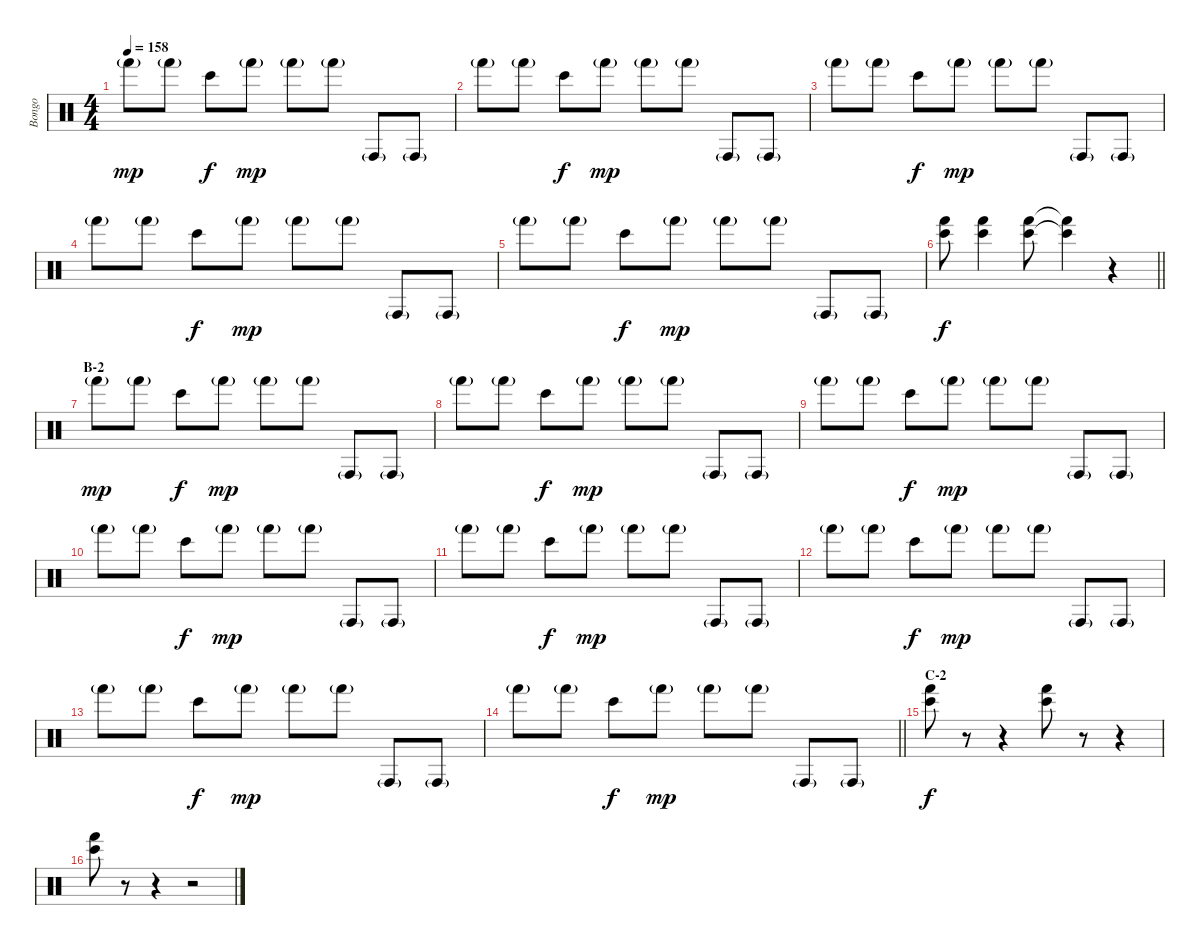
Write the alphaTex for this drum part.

\track ("Bongo" "Bongo") {instrument percussion}
\staff {score}
\articulation defaults
\ts (4 4)
\tempo 158
\clef neutral
\ks c "Hand (hit)"{g}.8{dy mp} "Hand (hit)"{g}.8 "Bongo High (hit)".8{dy f} "Hand (hit)"{g}.8{dy mp} "Hand (hit)"{g}.8 "Hand (hit)"{g}.8 "Conga high (hit)"{g}.8 "Conga high (hit)"{g}.8
|
"Hand (hit)"{g}.8 "Hand (hit)"{g}.8 "Bongo High (hit)".8{dy f} "Hand (hit)"{g}.8{dy mp} "Hand (hit)"{g}.8 "Hand (hit)"{g}.8 "Conga high (hit)"{g}.8 "Conga high (hit)"{g}.8 |
"Hand (hit)"{g}.8 "Hand (hit)"{g}.8 "Bongo High (hit)".8{dy f} "Hand (hit)"{g}.8{dy mp} "Hand (hit)"{g}.8 "Hand (hit)"{g}.8 "Conga high (hit)"{g}.8 "Conga high (hit)"{g}.8 |
"Hand (hit)"{g}.8 "Hand (hit)"{g}.8 "Bongo High (hit)".8{dy f} "Hand (hit)"{g}.8{dy mp} "Hand (hit)"{g}.8 "Hand (hit)"{g}.8 "Conga high (hit)"{g}.8 "Conga high (hit)"{g}.8 |
"Hand (hit)"{g}.8 "Hand (hit)"{g}.8 "Bongo High (hit)".8{dy f} "Hand (hit)"{g}.8{dy mp} "Hand (hit)"{g}.8 "Hand (hit)"{g}.8 "Conga high (hit)"{g}.8 "Conga high (hit)"{g}.8 |
\barLineRight lightlight
("Bongo High (hit)" "Hand (hit)").8{dy f} ("Bongo High (hit)" "Hand (hit)").4 ("Bongo High (hit)" "Hand (hit)").8 ("Bongo High (hit)"{t} "Hand (hit)"{t}).4 r.4 |
\section ("" "B-2")
"Hand (hit)"{g}.8{dy mp} "Hand (hit)"{g}.8 "Bongo High (hit)".8{dy f} "Hand (hit)"{g}.8{dy mp} "Hand (hit)"{g}.8 "Hand (hit)"{g}.8 "Conga high (hit)"{g}.8 "Conga high (hit)"{g}.8 |
"Hand (hit)"{g}.8 "Hand (hit)"{g}.8 "Bongo High (hit)".8{dy f} "Hand (hit)"{g}.8{dy mp} "Hand (hit)"{g}.8 "Hand (hit)"{g}.8 "Conga high (hit)"{g}.8 "Conga high (hit)"{g}.8 |
"Hand (hit)"{g}.8 "Hand (hit)"{g}.8 "Bongo High (hit)".8{dy f} "Hand (hit)"{g}.8{dy mp} "Hand (hit)"{g}.8 "Hand (hit)"{g}.8 "Conga high (hit)"{g}.8 "Conga high (hit)"{g}.8 |
"Hand (hit)"{g}.8 "Hand (hit)"{g}.8 "Bongo High (hit)".8{dy f} "Hand (hit)"{g}.8{dy mp} "Hand (hit)"{g}.8 "Hand (hit)"{g}.8 "Conga high (hit)"{g}.8 "Conga high (hit)"{g}.8 |
"Hand (hit)"{g}.8 "Hand (hit)"{g}.8 "Bongo High (hit)".8{dy f} "Hand (hit)"{g}.8{dy mp} "Hand (hit)"{g}.8 "Hand (hit)"{g}.8 "Conga high (hit)"{g}.8 "Conga high (hit)"{g}.8 |
"Hand (hit)"{g}.8 "Hand (hit)"{g}.8 "Bongo High (hit)".8{dy f} "Hand (hit)"{g}.8{dy mp} "Hand (hit)"{g}.8 "Hand (hit)"{g}.8 "Conga high (hit)"{g}.8 "Conga high (hit)"{g}.8 |
"Hand (hit)"{g}.8 "Hand (hit)"{g}.8 "Bongo High (hit)".8{dy f} "Hand (hit)"{g}.8{dy mp} "Hand (hit)"{g}.8 "Hand (hit)"{g}.8 "Conga high (hit)"{g}.8 "Conga high (hit)"{g}.8 |
\barLineRight lightlight "Hand (hit)"{g}.8 "Hand (hit)"{g}.8 "Bongo High (hit)".8{dy f} "Hand (hit)"{g}.8{dy mp} "Hand (hit)"{g}.8 "Hand (hit)"{g}.8 "Conga high (hit)"{g}.8 "Conga high (hit)"{g}.8
|
\section ("" "C-2")
("Bongo High (hit)" "Hand (hit)").8{dy f} r.8 r.4 ("Bongo High (hit)" "Hand (hit)").8 r.8 r.4 |
("Bongo High (hit)" "Hand (hit)").8 r.8 r.4 r.2
